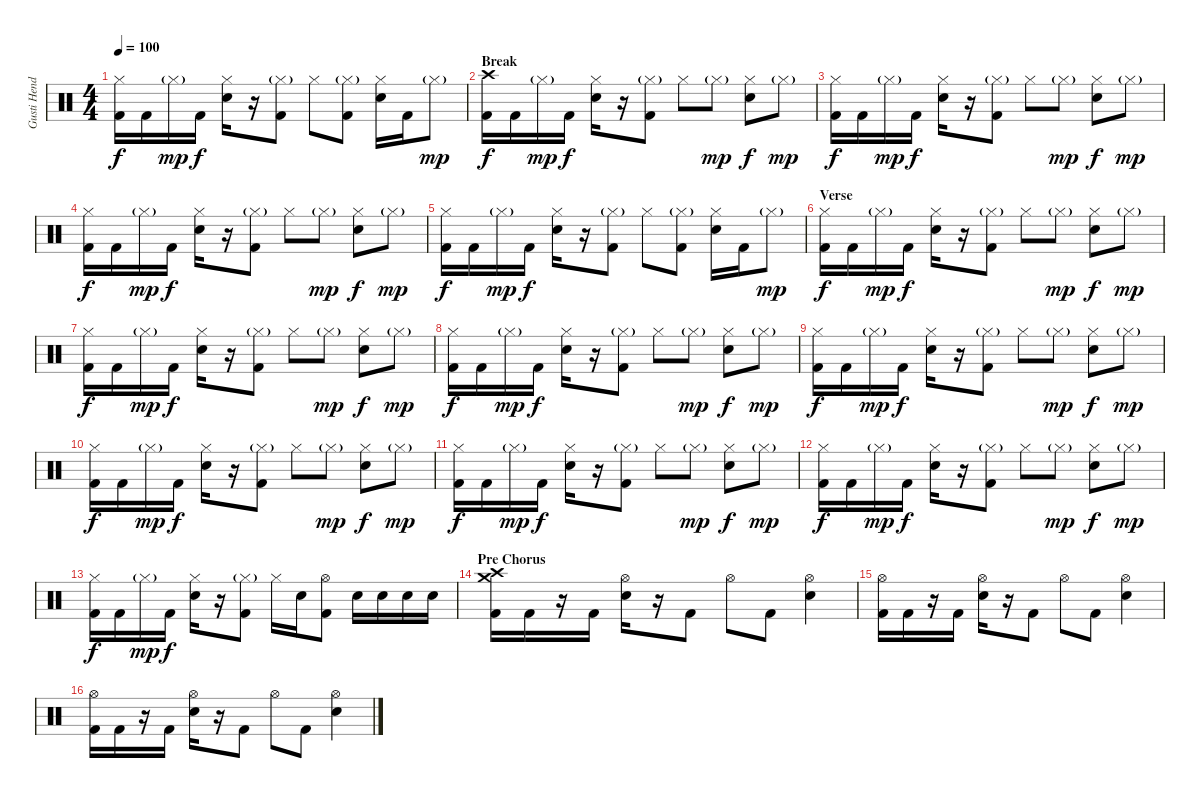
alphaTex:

\track ("Gusti Hendy" "Gusti Hend") {instrument percussion}
\staff {score}
\articulation defaults
\ts (4 4)
\tempo 100
\clef neutral
\ks c
("Hi-Hat (closed)" "Kick (hit) 2").16{dy f} "Kick (hit) 2".16 "Hi-Hat (closed)"{g}.16{dy mp} "Kick (hit) 2".16{dy f} ("Hi-Hat (closed)" "Electric Snare (hit)").16 r.16 ("Hi-Hat (closed)"{g} "Kick (hit) 2").8 "Hi-Hat (closed)".8 ("Hi-Hat (closed)"{g} "Kick (hit) 2").8 ("Hi-Hat (closed)" "Electric Snare (hit)").16 "Kick (hit) 2".16 "Hi-Hat (closed)"{g}.8{dy mp} |
\section ("" "Break")
("Crash high (hit)" "Kick (hit) 2").16{dy f} "Kick (hit) 2".16 "Hi-Hat (closed)"{g}.16{dy mp} "Kick (hit) 2".16{dy f} ("Hi-Hat (closed)" "Electric Snare (hit)").16 r.16 ("Hi-Hat (closed)"{g} "Kick (hit) 2").8 "Hi-Hat (closed)".8 "Hi-Hat (closed)"{g}.8{dy mp} ("Hi-Hat (closed)" "Electric Snare (hit)").8{dy f} "Hi-Hat (closed)"{g}.8{dy mp} |
("Hi-Hat (closed)" "Kick (hit) 2").16{dy f} "Kick (hit) 2".16 "Hi-Hat (closed)"{g}.16{dy mp} "Kick (hit) 2".16{dy f} ("Hi-Hat (closed)" "Electric Snare (hit)").16 r.16 ("Hi-Hat (closed)"{g} "Kick (hit) 2").8 "Hi-Hat (closed)".8 "Hi-Hat (closed)"{g}.8{dy mp} ("Hi-Hat (closed)" "Electric Snare (hit)").8{dy f} "Hi-Hat (closed)"{g}.8{dy mp} |
("Hi-Hat (closed)" "Kick (hit) 2").16{dy f} "Kick (hit) 2".16 "Hi-Hat (closed)"{g}.16{dy mp} "Kick (hit) 2".16{dy f} ("Hi-Hat (closed)" "Electric Snare (hit)").16 r.16 ("Hi-Hat (closed)"{g} "Kick (hit) 2").8 "Hi-Hat (closed)".8 "Hi-Hat (closed)"{g}.8{dy mp} ("Hi-Hat (closed)" "Electric Snare (hit)").8{dy f} "Hi-Hat (closed)"{g}.8{dy mp} |
("Hi-Hat (closed)" "Kick (hit) 2").16{dy f} "Kick (hit) 2".16 "Hi-Hat (closed)"{g}.16{dy mp} "Kick (hit) 2".16{dy f} ("Hi-Hat (closed)" "Electric Snare (hit)").16 r.16 ("Hi-Hat (closed)"{g} "Kick (hit) 2").8 "Hi-Hat (closed)".8 ("Hi-Hat (closed)"{g} "Kick (hit) 2").8 ("Hi-Hat (closed)" "Electric Snare (hit)").16 "Kick (hit) 2".16 "Hi-Hat (closed)"{g}.8{dy mp} |
\section ("" "Verse")
("Hi-Hat (closed)" "Kick (hit) 2").16{dy f} "Kick (hit) 2".16 "Hi-Hat (closed)"{g}.16{dy mp} "Kick (hit) 2".16{dy f} ("Hi-Hat (closed)" "Electric Snare (hit)").16 r.16 ("Hi-Hat (closed)"{g} "Kick (hit) 2").8 "Hi-Hat (closed)".8 "Hi-Hat (closed)"{g}.8{dy mp} ("Hi-Hat (closed)" "Electric Snare (hit)").8{dy f} "Hi-Hat (closed)"{g}.8{dy mp} |
("Hi-Hat (closed)" "Kick (hit) 2").16{dy f} "Kick (hit) 2".16 "Hi-Hat (closed)"{g}.16{dy mp} "Kick (hit) 2".16{dy f} ("Hi-Hat (closed)" "Electric Snare (hit)").16 r.16 ("Hi-Hat (closed)"{g} "Kick (hit) 2").8 "Hi-Hat (closed)".8 "Hi-Hat (closed)"{g}.8{dy mp} ("Hi-Hat (closed)" "Electric Snare (hit)").8{dy f} "Hi-Hat (closed)"{g}.8{dy mp} |
("Hi-Hat (closed)" "Kick (hit) 2").16{dy f} "Kick (hit) 2".16 "Hi-Hat (closed)"{g}.16{dy mp} "Kick (hit) 2".16{dy f} ("Hi-Hat (closed)" "Electric Snare (hit)").16 r.16 ("Hi-Hat (closed)"{g} "Kick (hit) 2").8 "Hi-Hat (closed)".8 "Hi-Hat (closed)"{g}.8{dy mp} ("Hi-Hat (closed)" "Electric Snare (hit)").8{dy f} "Hi-Hat (closed)"{g}.8{dy mp} |
("Hi-Hat (closed)" "Kick (hit) 2").16{dy f} "Kick (hit) 2".16 "Hi-Hat (closed)"{g}.16{dy mp} "Kick (hit) 2".16{dy f} ("Hi-Hat (closed)" "Electric Snare (hit)").16 r.16 ("Hi-Hat (closed)"{g} "Kick (hit) 2").8 "Hi-Hat (closed)".8 "Hi-Hat (closed)"{g}.8{dy mp} ("Hi-Hat (closed)" "Electric Snare (hit)").8{dy f} "Hi-Hat (closed)"{g}.8{dy mp} |
("Hi-Hat (closed)" "Kick (hit) 2").16{dy f} "Kick (hit) 2".16 "Hi-Hat (closed)"{g}.16{dy mp} "Kick (hit) 2".16{dy f} ("Hi-Hat (closed)" "Electric Snare (hit)").16 r.16 ("Hi-Hat (closed)"{g} "Kick (hit) 2").8 "Hi-Hat (closed)".8 "Hi-Hat (closed)"{g}.8{dy mp} ("Hi-Hat (closed)" "Electric Snare (hit)").8{dy f} "Hi-Hat (closed)"{g}.8{dy mp} |
("Hi-Hat (closed)" "Kick (hit) 2").16{dy f} "Kick (hit) 2".16 "Hi-Hat (closed)"{g}.16{dy mp} "Kick (hit) 2".16{dy f} ("Hi-Hat (closed)" "Electric Snare (hit)").16 r.16 ("Hi-Hat (closed)"{g} "Kick (hit) 2").8 "Hi-Hat (closed)".8 "Hi-Hat (closed)"{g}.8{dy mp} ("Hi-Hat (closed)" "Electric Snare (hit)").8{dy f} "Hi-Hat (closed)"{g}.8{dy mp} |
("Hi-Hat (closed)" "Kick (hit) 2").16{dy f} "Kick (hit) 2".16 "Hi-Hat (closed)"{g}.16{dy mp} "Kick (hit) 2".16{dy f} ("Hi-Hat (closed)" "Electric Snare (hit)").16 r.16 ("Hi-Hat (closed)"{g} "Kick (hit) 2").8 "Hi-Hat (closed)".8 "Hi-Hat (closed)"{g}.8{dy mp} ("Hi-Hat (closed)" "Electric Snare (hit)").8{dy f} "Hi-Hat (closed)"{g}.8{dy mp} |
("Hi-Hat (closed)" "Kick (hit) 2").16{dy f} "Kick (hit) 2".16 "Hi-Hat (closed)"{g}.16{dy mp} "Kick (hit) 2".16{dy f} ("Hi-Hat (closed)" "Electric Snare (hit)").16 r.16 ("Hi-Hat (closed)"{g} "Kick (hit) 2").8 "Hi-Hat (closed)".16 "Electric Snare (hit)".16 ("Hi-Hat (open)" "Kick (hit) 2").8 "Electric Snare (hit)".16 "Electric Snare (hit)".16 "Electric Snare (hit)".16 "Electric Snare (hit)".16 |
\section ("" "Pre Chorus")
("Crash high (hit)" "Crash medium (hit)" "Kick (hit) 2").16 "Kick (hit) 2".16 r.16 "Kick (hit) 2".16 ("Hi-Hat (open)" "Electric Snare (hit)").16 r.16 "Kick (hit) 2".8 "Hi-Hat (open)".8 "Kick (hit) 2".8 ("Hi-Hat (open)" "Electric Snare (hit)").4 |
("Hi-Hat (open)" "Kick (hit) 2").16 "Kick (hit) 2".16 r.16 "Kick (hit) 2".16 ("Hi-Hat (open)" "Electric Snare (hit)").16 r.16 "Kick (hit) 2".8 "Hi-Hat (open)".8 "Kick (hit) 2".8 ("Hi-Hat (open)" "Electric Snare (hit)").4 |
("Hi-Hat (open)" "Kick (hit) 2").16 "Kick (hit) 2".16 r.16 "Kick (hit) 2".16 ("Hi-Hat (open)" "Electric Snare (hit)").16 r.16 "Kick (hit) 2".8 "Hi-Hat (open)".8 "Kick (hit) 2".8 ("Hi-Hat (open)" "Electric Snare (hit)").4
